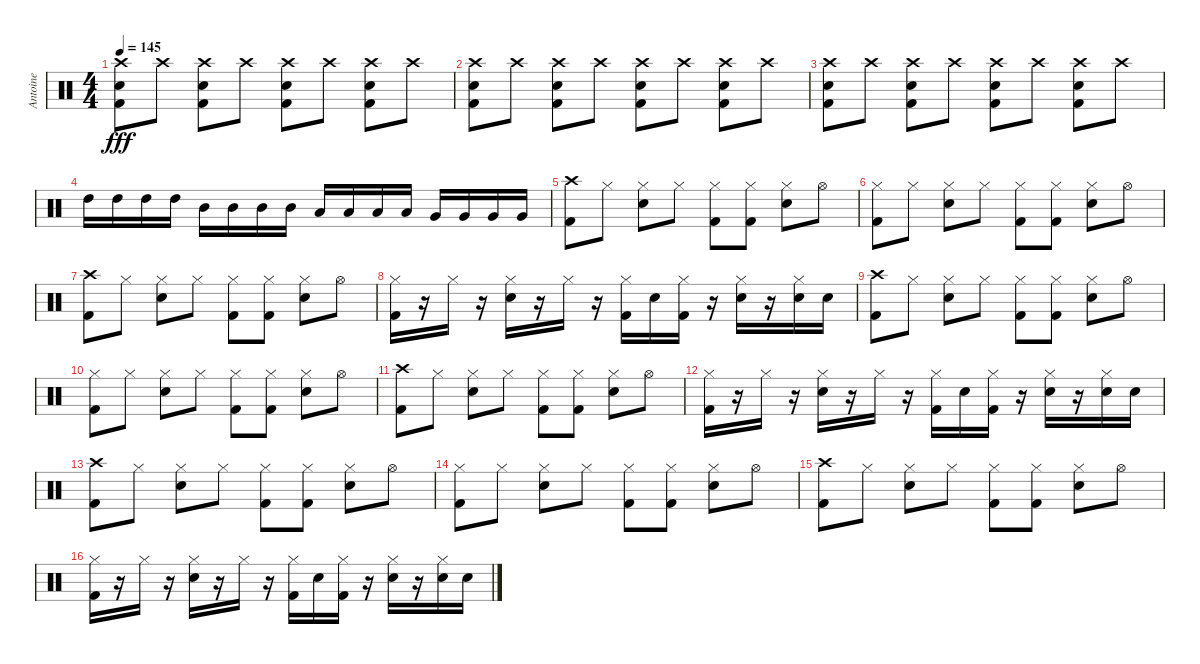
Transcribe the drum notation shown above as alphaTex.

\track ("Antoine" "Antoine") {instrument percussion}
\staff {score}
\articulation defaults
\ts (4 4)
\tempo 145
\clef neutral
\ks c
("Crash high (hit)" "Snare (hit) 2" "Kick (hit) 2").8{dy fff} "Crash high (hit)".8 ("Crash high (hit)" "Snare (hit) 2" "Kick (hit) 2").8 "Crash high (hit)".8 ("Crash high (hit)" "Snare (hit) 2" "Kick (hit) 2").8 "Crash high (hit)".8 ("Crash high (hit)" "Snare (hit) 2" "Kick (hit) 2").8 "Crash high (hit)".8 |
("Crash high (hit)" "Snare (hit) 2" "Kick (hit) 2").8 "Crash high (hit)".8 ("Crash high (hit)" "Snare (hit) 2" "Kick (hit) 2").8 "Crash high (hit)".8 ("Crash high (hit)" "Snare (hit) 2" "Kick (hit) 2").8 "Crash high (hit)".8 ("Crash high (hit)" "Snare (hit) 2" "Kick (hit) 2").8 "Crash high (hit)".8 |
("Crash high (hit)" "Snare (hit) 2" "Kick (hit) 2").8 "Crash high (hit)".8 ("Crash high (hit)" "Snare (hit) 2" "Kick (hit) 2").8 "Crash high (hit)".8 ("Crash high (hit)" "Snare (hit) 2" "Kick (hit) 2").8 "Crash high (hit)".8 ("Crash high (hit)" "Snare (hit) 2" "Kick (hit) 2").8 "Crash high (hit)".8 |
"High Tom (hit)".16 "High Tom (hit)".16 "High Tom (hit)".16 "High Tom (hit)".16 "Mid Tom (hit)".16 "Mid Tom (hit)".16 "Mid Tom (hit)".16 "Mid Tom (hit)".16 "Low Tom (hit)".16 "Low Tom (hit)".16 "Low Tom (hit)".16 "Low Tom (hit)".16 "Very Low Tom (hit)".16 "Very Low Tom (hit)".16 "Very Low Tom (hit)".16 "Very Low Tom (hit)".16 |
("Crash high (hit)" "Kick (hit) 2").8 "Hi-Hat (closed)".8 ("Hi-Hat (closed)" "Snare (hit) 2").8 "Hi-Hat (closed)".8 ("Hi-Hat (closed)" "Kick (hit) 2").8 ("Hi-Hat (closed)" "Kick (hit) 2").8 ("Hi-Hat (closed)" "Snare (hit) 2").8 "Hi-Hat (open)".8 |
("Hi-Hat (closed)" "Kick (hit) 2").8 "Hi-Hat (closed)".8 ("Hi-Hat (closed)" "Snare (hit) 2").8 "Hi-Hat (closed)".8 ("Hi-Hat (closed)" "Kick (hit) 2").8 ("Hi-Hat (closed)" "Kick (hit) 2").8 ("Hi-Hat (closed)" "Snare (hit) 2").8 "Hi-Hat (open)".8 |
("Crash high (hit)" "Kick (hit) 2").8 "Hi-Hat (closed)".8 ("Hi-Hat (closed)" "Snare (hit) 2").8 "Hi-Hat (closed)".8 ("Hi-Hat (closed)" "Kick (hit) 2").8 ("Hi-Hat (closed)" "Kick (hit) 2").8 ("Hi-Hat (closed)" "Snare (hit) 2").8 "Hi-Hat (open)".8 |
("Hi-Hat (closed)" "Kick (hit) 2").16 r.16 "Hi-Hat (closed)".16 r.16 ("Hi-Hat (closed)" "Snare (hit) 2").16 r.16 "Hi-Hat (closed)".16 r.16 ("Hi-Hat (closed)" "Kick (hit) 2").16 "Snare (hit) 2".16 ("Hi-Hat (closed)" "Kick (hit) 2").16 r.16 ("Hi-Hat (closed)" "Snare (hit) 2").16 r.16 ("Hi-Hat (closed)" "Snare (hit) 2").16 "Snare (hit) 2".16 |
("Crash high (hit)" "Kick (hit) 2").8 "Hi-Hat (closed)".8 ("Hi-Hat (closed)" "Snare (hit) 2").8 "Hi-Hat (closed)".8 ("Hi-Hat (closed)" "Kick (hit) 2").8 ("Hi-Hat (closed)" "Kick (hit) 2").8 ("Hi-Hat (closed)" "Snare (hit) 2").8 "Hi-Hat (open)".8 |
("Hi-Hat (closed)" "Kick (hit) 2").8 "Hi-Hat (closed)".8 ("Hi-Hat (closed)" "Snare (hit) 2").8 "Hi-Hat (closed)".8 ("Hi-Hat (closed)" "Kick (hit) 2").8 ("Hi-Hat (closed)" "Kick (hit) 2").8 ("Hi-Hat (closed)" "Snare (hit) 2").8 "Hi-Hat (open)".8 |
("Crash high (hit)" "Kick (hit) 2").8 "Hi-Hat (closed)".8 ("Hi-Hat (closed)" "Snare (hit) 2").8 "Hi-Hat (closed)".8 ("Hi-Hat (closed)" "Kick (hit) 2").8 ("Hi-Hat (closed)" "Kick (hit) 2").8 ("Hi-Hat (closed)" "Snare (hit) 2").8 "Hi-Hat (open)".8 |
("Hi-Hat (closed)" "Kick (hit) 2").16 r.16 "Hi-Hat (closed)".16 r.16 ("Hi-Hat (closed)" "Snare (hit) 2").16 r.16 "Hi-Hat (closed)".16 r.16 ("Hi-Hat (closed)" "Kick (hit) 2").16 "Snare (hit) 2".16 ("Hi-Hat (closed)" "Kick (hit) 2").16 r.16 ("Hi-Hat (closed)" "Snare (hit) 2").16 r.16 ("Hi-Hat (closed)" "Snare (hit) 2").16 "Snare (hit) 2".16 |
("Crash high (hit)" "Kick (hit) 2").8 "Hi-Hat (closed)".8 ("Hi-Hat (closed)" "Snare (hit) 2").8 "Hi-Hat (closed)".8 ("Hi-Hat (closed)" "Kick (hit) 2").8 ("Hi-Hat (closed)" "Kick (hit) 2").8 ("Hi-Hat (closed)" "Snare (hit) 2").8 "Hi-Hat (open)".8 |
("Hi-Hat (closed)" "Kick (hit) 2").8 "Hi-Hat (closed)".8 ("Hi-Hat (closed)" "Snare (hit) 2").8 "Hi-Hat (closed)".8 ("Hi-Hat (closed)" "Kick (hit) 2").8 ("Hi-Hat (closed)" "Kick (hit) 2").8 ("Hi-Hat (closed)" "Snare (hit) 2").8 "Hi-Hat (open)".8 |
("Crash high (hit)" "Kick (hit) 2").8 "Hi-Hat (closed)".8 ("Hi-Hat (closed)" "Snare (hit) 2").8 "Hi-Hat (closed)".8 ("Hi-Hat (closed)" "Kick (hit) 2").8 ("Hi-Hat (closed)" "Kick (hit) 2").8 ("Hi-Hat (closed)" "Snare (hit) 2").8 "Hi-Hat (open)".8 |
("Hi-Hat (closed)" "Kick (hit) 2").16 r.16 "Hi-Hat (closed)".16 r.16 ("Hi-Hat (closed)" "Snare (hit) 2").16 r.16 "Hi-Hat (closed)".16 r.16 ("Hi-Hat (closed)" "Kick (hit) 2").16 "Snare (hit) 2".16 ("Hi-Hat (closed)" "Kick (hit) 2").16 r.16 ("Hi-Hat (closed)" "Snare (hit) 2").16 r.16 ("Hi-Hat (closed)" "Snare (hit) 2").16 "Snare (hit) 2".16
